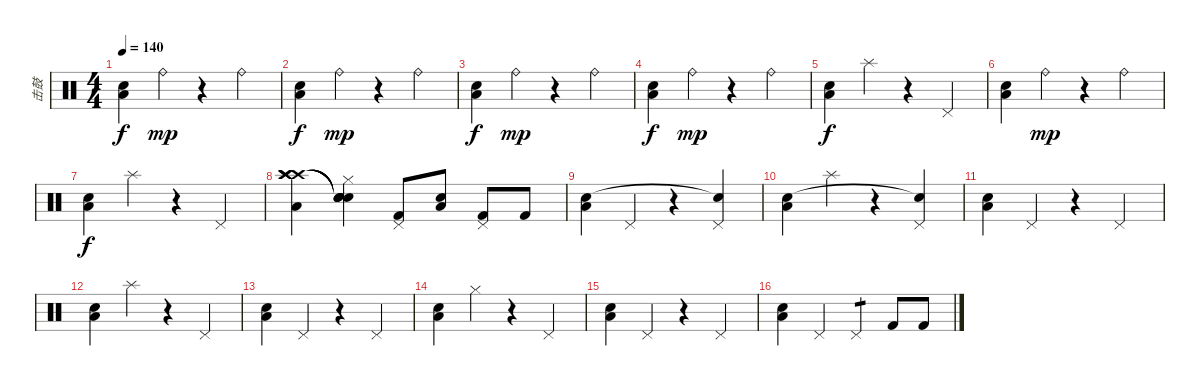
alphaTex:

\track ("击鼓" "击鼓") {instrument percussion}
\staff {score}
\articulation defaults
\ts (4 4)
\tempo 140
\clef neutral
\ks c
("Low Floor Tom (hit)" "Snare (hit) 2").4{dy f} "Ride (bell)".4{dy mp} r.4 "Ride (bell)".4 |
("Low Floor Tom (hit)" "Snare (hit) 2").4{dy f} "Ride (bell)".4{dy mp} r.4 "Ride (bell)".4 |
("Low Floor Tom (hit)" "Snare (hit) 2").4{dy f} "Ride (bell)".4{dy mp} r.4 "Ride (bell)".4 |
("Low Floor Tom (hit)" "Snare (hit) 2").4{dy f} "Ride (bell)".4{dy mp} r.4 "Ride (bell)".4 |
("Low Floor Tom (hit)" "Snare (hit) 2").4{dy f} "Splash (hit)".4 r.4 "Pedal Hi-Hat (hit)".4 |
("Low Floor Tom (hit)" "Snare (hit) 2").4 "Ride (bell)".4{dy mp} r.4 "Ride (bell)".4 |
("Low Floor Tom (hit)" "Snare (hit) 2").4{dy f} "Splash (hit)".4 r.4 "Pedal Hi-Hat (hit)".4 |
("Crash high (hit)" "Crash high (hit)" "Crash high (hit)" "Low Floor Tom (hit)" "Crash high (hit)").4 ("Snare (hit)"{t} "Snare (hit)"{t} "Snare (hit)"{t} "Hi-Hat (closed)" "Snare (hit)"{t}).4 ("Pedal Hi-Hat (hit)" "Kick (hit) 2").8 ("Low Floor Tom (hit)" "Snare (hit) 2").8 ("Pedal Hi-Hat (hit)" "Kick (hit) 2").8 "Kick (hit) 2".8 |
("Low Floor Tom (hit)" "Snare (hit) 2").4 "Pedal Hi-Hat (hit)".4 r.4 ("Pedal Hi-Hat (hit)" "Snare (hit)"{t}).4 |
("Low Floor Tom (hit)" "Snare (hit) 2").4 "Splash (hit)".4 r.4 ("Pedal Hi-Hat (hit)" "Snare (hit)"{t}).4 |
("Low Floor Tom (hit)" "Snare (hit) 2").4 "Pedal Hi-Hat (hit)".4 r.4 "Pedal Hi-Hat (hit)".4 |
("Low Floor Tom (hit)" "Snare (hit) 2").4 "Splash (hit)".4 r.4 "Pedal Hi-Hat (hit)".4 |
("Low Floor Tom (hit)" "Snare (hit) 2").4 "Pedal Hi-Hat (hit)".4 r.4 "Pedal Hi-Hat (hit)".4 |
("Low Floor Tom (hit)" "Snare (hit) 2").4 "Hi-Hat (closed)".4 r.4 "Pedal Hi-Hat (hit)".4 |
("Low Floor Tom (hit)" "Snare (hit) 2").4 "Pedal Hi-Hat (hit)".4 r.4 "Pedal Hi-Hat (hit)".4 |
("Low Floor Tom (hit)" "Snare (hit) 2").4 "Pedal Hi-Hat (hit)".4 "Pedal Hi-Hat (hit)".4{tp 1} "Kick (hit) 2".8 "Kick (hit) 2".8
